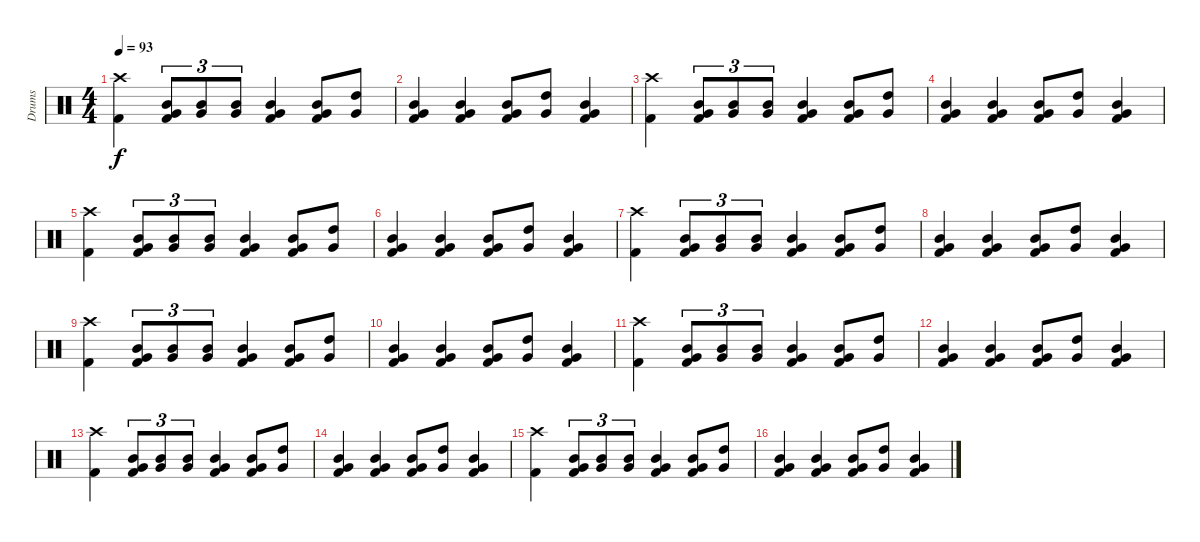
\track ("Drums" "Drums") {instrument percussion}
\staff {score}
\articulation defaults
\ts (4 4)
\tempo 93
\clef neutral
\ks c
("Crash high (hit)" "Kick (hit) 2").4{dy f} ("Mid Tom (hit)" "Very Low Tom (hit)" "Kick (hit) 2").8{tu (3 2)} ("Mid Tom (hit)" "Very Low Tom (hit)").8{tu (3 2)} ("Mid Tom (hit)" "Very Low Tom (hit)").8{tu (3 2)} ("Mid Tom (hit)" "Very Low Tom (hit)" "Kick (hit) 2").4 ("Mid Tom (hit)" "Very Low Tom (hit)" "Kick (hit) 2").8 ("High Tom (hit)" "Very Low Tom (hit)").8 |
("Mid Tom (hit)" "Very Low Tom (hit)" "Kick (hit) 2").4 ("Mid Tom (hit)" "Very Low Tom (hit)" "Kick (hit) 2").4 ("Mid Tom (hit)" "Very Low Tom (hit)" "Kick (hit) 2").8 ("High Tom (hit)" "Very Low Tom (hit)").8 ("Mid Tom (hit)" "Very Low Tom (hit)" "Kick (hit) 2").4 |
("Crash high (hit)" "Kick (hit) 2").4 ("Mid Tom (hit)" "Very Low Tom (hit)" "Kick (hit) 2").8{tu (3 2)} ("Mid Tom (hit)" "Very Low Tom (hit)").8{tu (3 2)} ("Mid Tom (hit)" "Very Low Tom (hit)").8{tu (3 2)} ("Mid Tom (hit)" "Very Low Tom (hit)" "Kick (hit) 2").4 ("Mid Tom (hit)" "Very Low Tom (hit)" "Kick (hit) 2").8 ("High Tom (hit)" "Very Low Tom (hit)").8 |
("Mid Tom (hit)" "Very Low Tom (hit)" "Kick (hit) 2").4 ("Mid Tom (hit)" "Very Low Tom (hit)" "Kick (hit) 2").4 ("Mid Tom (hit)" "Very Low Tom (hit)" "Kick (hit) 2").8 ("High Tom (hit)" "Very Low Tom (hit)").8 ("Mid Tom (hit)" "Very Low Tom (hit)" "Kick (hit) 2").4 |
("Crash high (hit)" "Kick (hit) 2").4 ("Mid Tom (hit)" "Very Low Tom (hit)" "Kick (hit) 2").8{tu (3 2)} ("Mid Tom (hit)" "Very Low Tom (hit)").8{tu (3 2)} ("Mid Tom (hit)" "Very Low Tom (hit)").8{tu (3 2)} ("Mid Tom (hit)" "Very Low Tom (hit)" "Kick (hit) 2").4 ("Mid Tom (hit)" "Very Low Tom (hit)" "Kick (hit) 2").8 ("High Tom (hit)" "Very Low Tom (hit)").8 |
("Mid Tom (hit)" "Very Low Tom (hit)" "Kick (hit) 2").4 ("Mid Tom (hit)" "Very Low Tom (hit)" "Kick (hit) 2").4 ("Mid Tom (hit)" "Very Low Tom (hit)" "Kick (hit) 2").8 ("High Tom (hit)" "Very Low Tom (hit)").8 ("Mid Tom (hit)" "Very Low Tom (hit)" "Kick (hit) 2").4 |
("Crash high (hit)" "Kick (hit) 2").4 ("Mid Tom (hit)" "Very Low Tom (hit)" "Kick (hit) 2").8{tu (3 2)} ("Mid Tom (hit)" "Very Low Tom (hit)").8{tu (3 2)} ("Mid Tom (hit)" "Very Low Tom (hit)").8{tu (3 2)} ("Mid Tom (hit)" "Very Low Tom (hit)" "Kick (hit) 2").4 ("Mid Tom (hit)" "Very Low Tom (hit)" "Kick (hit) 2").8 ("High Tom (hit)" "Very Low Tom (hit)").8 |
("Mid Tom (hit)" "Very Low Tom (hit)" "Kick (hit) 2").4 ("Mid Tom (hit)" "Very Low Tom (hit)" "Kick (hit) 2").4 ("Mid Tom (hit)" "Very Low Tom (hit)" "Kick (hit) 2").8 ("High Tom (hit)" "Very Low Tom (hit)").8 ("Mid Tom (hit)" "Very Low Tom (hit)" "Kick (hit) 2").4 |
("Crash high (hit)" "Kick (hit) 2").4 ("Mid Tom (hit)" "Very Low Tom (hit)" "Kick (hit) 2").8{tu (3 2)} ("Mid Tom (hit)" "Very Low Tom (hit)").8{tu (3 2)} ("Mid Tom (hit)" "Very Low Tom (hit)").8{tu (3 2)} ("Mid Tom (hit)" "Very Low Tom (hit)" "Kick (hit) 2").4 ("Mid Tom (hit)" "Very Low Tom (hit)" "Kick (hit) 2").8 ("High Tom (hit)" "Very Low Tom (hit)").8 |
("Mid Tom (hit)" "Very Low Tom (hit)" "Kick (hit) 2").4 ("Mid Tom (hit)" "Very Low Tom (hit)" "Kick (hit) 2").4 ("Mid Tom (hit)" "Very Low Tom (hit)" "Kick (hit) 2").8 ("High Tom (hit)" "Very Low Tom (hit)").8 ("Mid Tom (hit)" "Very Low Tom (hit)" "Kick (hit) 2").4 |
("Crash high (hit)" "Kick (hit) 2").4 ("Mid Tom (hit)" "Very Low Tom (hit)" "Kick (hit) 2").8{tu (3 2)} ("Mid Tom (hit)" "Very Low Tom (hit)").8{tu (3 2)} ("Mid Tom (hit)" "Very Low Tom (hit)").8{tu (3 2)} ("Mid Tom (hit)" "Very Low Tom (hit)" "Kick (hit) 2").4 ("Mid Tom (hit)" "Very Low Tom (hit)" "Kick (hit) 2").8 ("High Tom (hit)" "Very Low Tom (hit)").8 |
("Mid Tom (hit)" "Very Low Tom (hit)" "Kick (hit) 2").4 ("Mid Tom (hit)" "Very Low Tom (hit)" "Kick (hit) 2").4 ("Mid Tom (hit)" "Very Low Tom (hit)" "Kick (hit) 2").8 ("High Tom (hit)" "Very Low Tom (hit)").8 ("Mid Tom (hit)" "Very Low Tom (hit)" "Kick (hit) 2").4 |
("Crash high (hit)" "Kick (hit) 2").4 ("Mid Tom (hit)" "Very Low Tom (hit)" "Kick (hit) 2").8{tu (3 2)} ("Mid Tom (hit)" "Very Low Tom (hit)").8{tu (3 2)} ("Mid Tom (hit)" "Very Low Tom (hit)").8{tu (3 2)} ("Mid Tom (hit)" "Very Low Tom (hit)" "Kick (hit) 2").4 ("Mid Tom (hit)" "Very Low Tom (hit)" "Kick (hit) 2").8 ("High Tom (hit)" "Very Low Tom (hit)").8 |
("Mid Tom (hit)" "Very Low Tom (hit)" "Kick (hit) 2").4 ("Mid Tom (hit)" "Very Low Tom (hit)" "Kick (hit) 2").4 ("Mid Tom (hit)" "Very Low Tom (hit)" "Kick (hit) 2").8 ("High Tom (hit)" "Very Low Tom (hit)").8 ("Mid Tom (hit)" "Very Low Tom (hit)" "Kick (hit) 2").4 |
("Crash high (hit)" "Kick (hit) 2").4 ("Mid Tom (hit)" "Very Low Tom (hit)" "Kick (hit) 2").8{tu (3 2)} ("Mid Tom (hit)" "Very Low Tom (hit)").8{tu (3 2)} ("Mid Tom (hit)" "Very Low Tom (hit)").8{tu (3 2)} ("Mid Tom (hit)" "Very Low Tom (hit)" "Kick (hit) 2").4 ("Mid Tom (hit)" "Very Low Tom (hit)" "Kick (hit) 2").8 ("High Tom (hit)" "Very Low Tom (hit)").8 |
("Mid Tom (hit)" "Very Low Tom (hit)" "Kick (hit) 2").4 ("Mid Tom (hit)" "Very Low Tom (hit)" "Kick (hit) 2").4 ("Mid Tom (hit)" "Very Low Tom (hit)" "Kick (hit) 2").8 ("High Tom (hit)" "Very Low Tom (hit)").8 ("Mid Tom (hit)" "Very Low Tom (hit)" "Kick (hit) 2").4
